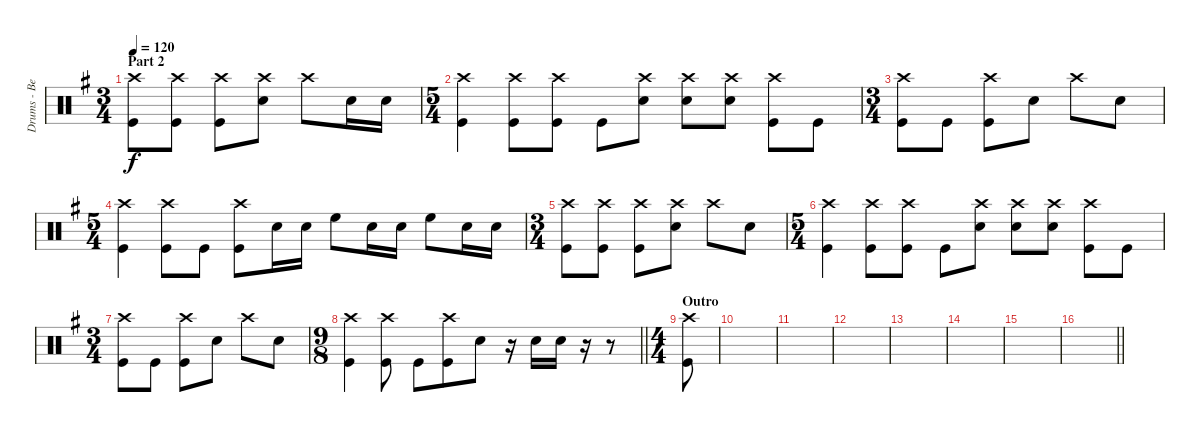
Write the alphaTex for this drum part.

\track ("Drums - Ben Johnston" "Drums - Be") {instrument percussion}
\staff {score}
\articulation defaults
\ts (3 4)
\section ("" "Part 2")
\tempo 120
\clef neutral
\ks eminor
("Crash high (hit)" "Kick (hit)").8{dy f} ("Crash high (hit)" "Kick (hit)").8 ("Crash high (hit)" "Kick (hit)").8 ("Crash high (hit)" "Snare (hit) 2").8 "Crash high (hit)".8 "Snare (hit) 2".16 "Snare (hit) 2".16 |
\ts (5 4)
("Crash high (hit)" "Kick (hit)").4 ("Crash high (hit)" "Kick (hit)").8 ("Crash high (hit)" "Kick (hit)").8 "Kick (hit)".8 ("Crash high (hit)" "Snare (hit) 2").8 ("Crash high (hit)" "Snare (hit) 2").8 ("Crash high (hit)" "Snare (hit) 2").8 ("Crash high (hit)" "Kick (hit)").8 "Kick (hit)".8 |
\ts (3 4)
("Crash high (hit)" "Kick (hit)").8 "Kick (hit)".8 ("Crash high (hit)" "Kick (hit)").8 "Snare (hit) 2".8 "Crash high (hit)".8 "Snare (hit) 2".8 |
\ts (5 4)
("Crash high (hit)" "Kick (hit)").4 ("Crash high (hit)" "Kick (hit)").8 "Kick (hit)".8 ("Crash high (hit)" "Kick (hit)").8 "Snare (hit) 2".16 "Snare (hit) 2".16 "High Floor Tom (hit)".8 "Snare (hit) 2".16 "Snare (hit) 2".16 "High Floor Tom (hit)".8 "Snare (hit) 2".16 "Snare (hit) 2".16 |
\ts (3 4)
("Crash high (hit)" "Kick (hit)").8 ("Crash high (hit)" "Kick (hit)").8 ("Crash high (hit)" "Kick (hit)").8 ("Crash high (hit)" "Snare (hit) 2").8 "Crash high (hit)".8 "Snare (hit) 2".8 |
\ts (5 4)
("Crash high (hit)" "Kick (hit)").4 ("Crash high (hit)" "Kick (hit)").8 ("Crash high (hit)" "Kick (hit)").8 "Kick (hit)".8 ("Crash high (hit)" "Snare (hit) 2").8 ("Crash high (hit)" "Snare (hit) 2").8 ("Crash high (hit)" "Snare (hit) 2").8 ("Crash high (hit)" "Kick (hit)").8 "Kick (hit)".8 |
\ts (3 4)
("Crash high (hit)" "Kick (hit)").8 "Kick (hit)".8 ("Crash high (hit)" "Kick (hit)").8 "Snare (hit) 2".8 "Crash high (hit)".8 "Snare (hit) 2".8 |
\ts (9 8)
\barLineRight lightlight
("Crash high (hit)" "Kick (hit)").4 ("Crash high (hit)" "Kick (hit)").8 "Kick (hit)".8 ("Crash high (hit)" "Kick (hit)").8 "Snare (hit) 2".8 r.16 "Snare (hit) 2".16 "Snare (hit) 2".16 r.16 r.8 |
\ts (4 4)
\section ("" "Outro")
("Crash high (hit)" "Kick (hit)").8 |
|
|
|
|
|
|
\barLineRight lightlight
